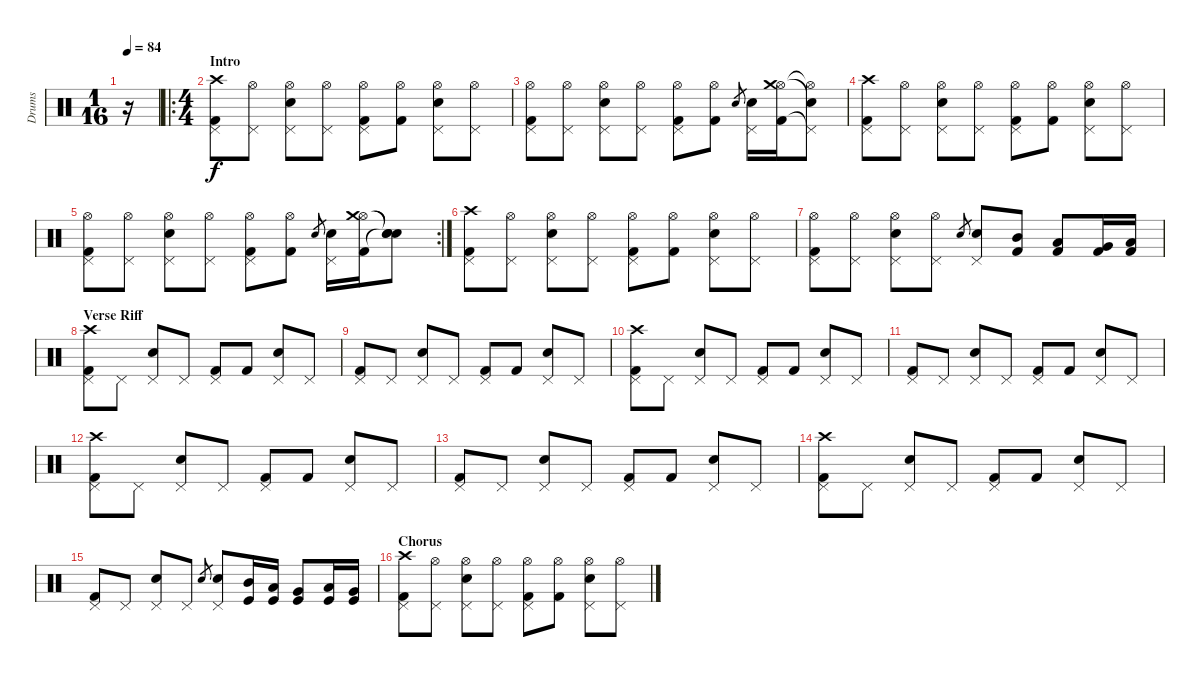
\track ("Drums" "Drums") {instrument percussion}
\staff {score}
\articulation defaults
\ts (1 16)
\tempo 84
\clef neutral
\ks c
r.16{dy f} |
\ro
\ts (4 4)
\section ("" "Intro")
("Kick (hit) 2" "Pedal Hi-Hat (hit)" "Crash high (hit)").8 ("Pedal Hi-Hat (hit)" "Hi-Hat (open)").8 ("Snare (hit) 2" "Pedal Hi-Hat (hit)" "Hi-Hat (open)").8 ("Pedal Hi-Hat (hit)" "Hi-Hat (open)").8 ("Kick (hit) 2" "Pedal Hi-Hat (hit)" "Hi-Hat (open)").8 ("Kick (hit) 2" "Hi-Hat (open)").8 ("Snare (hit) 2" "Pedal Hi-Hat (hit)" "Hi-Hat (open)").8 ("Pedal Hi-Hat (hit)" "Hi-Hat (open)").8 |
("Kick (hit) 2" "Pedal Hi-Hat (hit)" "Hi-Hat (open)").8 ("Pedal Hi-Hat (hit)" "Hi-Hat (open)").8 ("Snare (hit) 2" "Pedal Hi-Hat (hit)" "Hi-Hat (open)").8 ("Pedal Hi-Hat (hit)" "Hi-Hat (open)").8 ("Kick (hit) 2" "Pedal Hi-Hat (hit)" "Hi-Hat (open)").8 ("Kick (hit) 2" "Hi-Hat (open)").8 "Snare (hit) 2".8{gr} ("Snare (hit) 2" "Pedal Hi-Hat (hit)").16 ("Kick (hit) 2" "Hi-Hat (open)" "Crash medium (hit)").16 ("Pedal Hi-Hat (hit)"{t} "Hi-Hat (open)"{t} "Snare (hit)"{t}).8 |
("Kick (hit) 2" "Pedal Hi-Hat (hit)" "Crash high (hit)").8 ("Pedal Hi-Hat (hit)" "Hi-Hat (open)").8 ("Snare (hit) 2" "Pedal Hi-Hat (hit)" "Hi-Hat (open)").8 ("Pedal Hi-Hat (hit)" "Hi-Hat (open)").8 ("Kick (hit) 2" "Pedal Hi-Hat (hit)" "Hi-Hat (open)").8 ("Kick (hit) 2" "Hi-Hat (open)").8 ("Snare (hit) 2" "Pedal Hi-Hat (hit)" "Hi-Hat (open)").8 ("Pedal Hi-Hat (hit)" "Hi-Hat (open)").8 |
\rc 2
("Kick (hit) 2" "Pedal Hi-Hat (hit)" "Hi-Hat (open)").8 ("Pedal Hi-Hat (hit)" "Hi-Hat (open)").8 ("Snare (hit) 2" "Pedal Hi-Hat (hit)" "Hi-Hat (open)").8 ("Pedal Hi-Hat (hit)" "Hi-Hat (open)").8 ("Kick (hit) 2" "Pedal Hi-Hat (hit)" "Hi-Hat (open)").8 ("Kick (hit) 2" "Hi-Hat (open)").8 "Snare (hit) 2".8{gr} ("Snare (hit) 2" "Pedal Hi-Hat (hit)").16 ("Kick (hit) 2" "Hi-Hat (open)" "Crash medium (hit)").16 ("Snare (hit)"{t} "Snare (hit)"{t} "Snare (hit)"{t}).8 |
("Kick (hit) 2" "Pedal Hi-Hat (hit)" "Crash high (hit)").8 ("Pedal Hi-Hat (hit)" "Hi-Hat (open)").8 ("Snare (hit) 2" "Pedal Hi-Hat (hit)" "Hi-Hat (open)").8 ("Pedal Hi-Hat (hit)" "Hi-Hat (open)").8 ("Kick (hit) 2" "Pedal Hi-Hat (hit)" "Hi-Hat (open)").8 ("Kick (hit) 2" "Hi-Hat (open)").8 ("Snare (hit) 2" "Pedal Hi-Hat (hit)" "Hi-Hat (open)").8 ("Pedal Hi-Hat (hit)" "Hi-Hat (open)").8 |
("Kick (hit) 2" "Pedal Hi-Hat (hit)" "Hi-Hat (open)").8 ("Pedal Hi-Hat (hit)" "Hi-Hat (open)").8 ("Snare (hit) 2" "Pedal Hi-Hat (hit)" "Hi-Hat (open)").8 ("Pedal Hi-Hat (hit)" "Hi-Hat (open)").8 "Snare (hit) 2".8{gr} ("Snare (hit) 2" "Pedal Hi-Hat (hit)").8 ("Mid Tom (hit)" "Kick (hit) 2").8 ("Low Tom (hit)" "Kick (hit) 2").8 ("Very Low Tom (hit)" "Kick (hit) 2").16 ("Low Floor Tom (hit)" "Kick (hit) 2").16 |
\section ("" "Verse Riff")
("Kick (hit) 2" "Pedal Hi-Hat (hit)" "Crash high (hit)").8 "Pedal Hi-Hat (hit)".8 ("Snare (hit) 2" "Pedal Hi-Hat (hit)").8 "Pedal Hi-Hat (hit)".8 ("Kick (hit) 2" "Pedal Hi-Hat (hit)").8 "Kick (hit) 2".8 ("Snare (hit) 2" "Pedal Hi-Hat (hit)").8 "Pedal Hi-Hat (hit)".8 |
("Kick (hit) 2" "Pedal Hi-Hat (hit)").8 "Pedal Hi-Hat (hit)".8 ("Snare (hit) 2" "Pedal Hi-Hat (hit)").8 "Pedal Hi-Hat (hit)".8 ("Kick (hit) 2" "Pedal Hi-Hat (hit)").8 "Kick (hit) 2".8 ("Snare (hit) 2" "Pedal Hi-Hat (hit)").8 "Pedal Hi-Hat (hit)".8 |
("Kick (hit) 2" "Pedal Hi-Hat (hit)" "Crash high (hit)").8 "Pedal Hi-Hat (hit)".8 ("Snare (hit) 2" "Pedal Hi-Hat (hit)").8 "Pedal Hi-Hat (hit)".8 ("Kick (hit) 2" "Pedal Hi-Hat (hit)").8 "Kick (hit) 2".8 ("Snare (hit) 2" "Pedal Hi-Hat (hit)").8 "Pedal Hi-Hat (hit)".8 |
("Kick (hit) 2" "Pedal Hi-Hat (hit)").8 "Pedal Hi-Hat (hit)".8 ("Snare (hit) 2" "Pedal Hi-Hat (hit)").8 "Pedal Hi-Hat (hit)".8 ("Kick (hit) 2" "Pedal Hi-Hat (hit)").8 "Kick (hit) 2".8 ("Snare (hit) 2" "Pedal Hi-Hat (hit)").8 "Pedal Hi-Hat (hit)".8 |
("Kick (hit) 2" "Pedal Hi-Hat (hit)" "Crash high (hit)").8 "Pedal Hi-Hat (hit)".8 ("Snare (hit) 2" "Pedal Hi-Hat (hit)").8 "Pedal Hi-Hat (hit)".8 ("Kick (hit) 2" "Pedal Hi-Hat (hit)").8 "Kick (hit) 2".8 ("Snare (hit) 2" "Pedal Hi-Hat (hit)").8 "Pedal Hi-Hat (hit)".8 |
("Kick (hit) 2" "Pedal Hi-Hat (hit)").8 "Pedal Hi-Hat (hit)".8 ("Snare (hit) 2" "Pedal Hi-Hat (hit)").8 "Pedal Hi-Hat (hit)".8 ("Kick (hit) 2" "Pedal Hi-Hat (hit)").8 "Kick (hit) 2".8 ("Snare (hit) 2" "Pedal Hi-Hat (hit)").8 "Pedal Hi-Hat (hit)".8 |
("Kick (hit) 2" "Pedal Hi-Hat (hit)" "Crash high (hit)").8 "Pedal Hi-Hat (hit)".8 ("Snare (hit) 2" "Pedal Hi-Hat (hit)").8 "Pedal Hi-Hat (hit)".8 ("Kick (hit) 2" "Pedal Hi-Hat (hit)").8 "Kick (hit) 2".8 ("Snare (hit) 2" "Pedal Hi-Hat (hit)").8 "Pedal Hi-Hat (hit)".8 |
("Kick (hit) 2" "Pedal Hi-Hat (hit)").8 "Pedal Hi-Hat (hit)".8 ("Snare (hit) 2" "Pedal Hi-Hat (hit)").8 "Pedal Hi-Hat (hit)".8 "Snare (hit) 2".8{gr} ("Snare (hit) 2" "Pedal Hi-Hat (hit)").8 ("Mid Tom (hit)" "Kick (hit)").16 ("Low Tom (hit)" "Kick (hit)").16 ("Very Low Tom (hit)" "Kick (hit)").8 ("Low Floor Tom (hit)" "Kick (hit)").16 ("Very Low Tom (hit)" "Kick (hit)").16 |
\section ("" "Chorus")
("Kick (hit) 2" "Pedal Hi-Hat (hit)" "Crash high (hit)").8 ("Pedal Hi-Hat (hit)" "Hi-Hat (open)").8 ("Snare (hit) 2" "Pedal Hi-Hat (hit)" "Hi-Hat (open)").8 ("Pedal Hi-Hat (hit)" "Hi-Hat (open)").8 ("Kick (hit) 2" "Pedal Hi-Hat (hit)" "Hi-Hat (open)").8 ("Kick (hit) 2" "Hi-Hat (open)").8 ("Snare (hit) 2" "Pedal Hi-Hat (hit)" "Hi-Hat (open)").8 ("Pedal Hi-Hat (hit)" "Hi-Hat (open)").8
